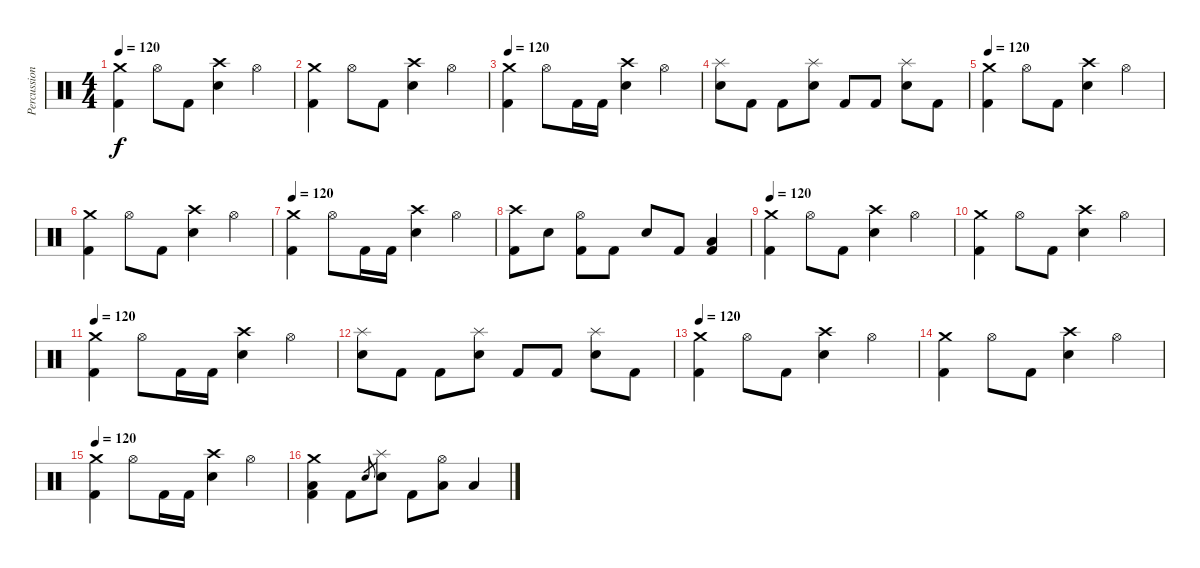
\track ("Percussions" "Percussion") {instrument percussion}
\staff {score}
\articulation defaults
\ts (4 4)
\tempo 120
\clef neutral
\ks c
("Crash medium (hit)" "Kick (hit) 2").4{dy f} "Hi-Hat (open)".8 "Kick (hit) 2".8 ("Crash high (hit)" "Electric Snare (hit)").4 "Hi-Hat (open)".4 |
("Crash medium (hit)" "Kick (hit) 2").4 "Hi-Hat (open)".8 "Kick (hit) 2".8 ("Crash high (hit)" "Electric Snare (hit)").4 "Hi-Hat (open)".4 |
\tempo 120
("Crash medium (hit)" "Kick (hit) 2").4 "Hi-Hat (open)".8 "Kick (hit) 2".16 "Kick (hit) 2".16 ("Crash high (hit)" "Electric Snare (hit)").4 "Hi-Hat (open)".4 |
("Splash (hit)" "Electric Snare (hit)").8 "Kick (hit) 2".8 "Kick (hit) 2".8 ("Splash (hit)" "Electric Snare (hit)").8 "Kick (hit) 2".8 "Kick (hit) 2".8 ("Splash (hit)" "Electric Snare (hit)").8 "Kick (hit) 2".8 |
\tempo 120
("Crash medium (hit)" "Kick (hit) 2").4 "Hi-Hat (open)".8 "Kick (hit) 2".8 ("Crash high (hit)" "Electric Snare (hit)").4 "Hi-Hat (open)".4 |
("Crash medium (hit)" "Kick (hit) 2").4 "Hi-Hat (open)".8 "Kick (hit) 2".8 ("Crash high (hit)" "Electric Snare (hit)").4 "Hi-Hat (open)".4 |
\tempo 120
("Crash medium (hit)" "Kick (hit) 2").4 "Hi-Hat (open)".8 "Kick (hit) 2".16 "Kick (hit) 2".16 ("Crash high (hit)" "Electric Snare (hit)").4 "Hi-Hat (open)".4 |
("Crash high (hit)" "Kick (hit) 2").8 "Electric Snare (hit)".8 ("Hi-Hat (open)" "Kick (hit) 2").8 "Kick (hit) 2".8 "Electric Snare (hit)".8 "Kick (hit) 2".8 ("Low Tom (hit)" "Kick (hit) 2").4 |
\tempo 120
("Crash medium (hit)" "Kick (hit) 2").4 "Hi-Hat (open)".8 "Kick (hit) 2".8 ("Crash high (hit)" "Electric Snare (hit)").4 "Hi-Hat (open)".4 |
("Crash medium (hit)" "Kick (hit) 2").4 "Hi-Hat (open)".8 "Kick (hit) 2".8 ("Crash high (hit)" "Electric Snare (hit)").4 "Hi-Hat (open)".4 |
\tempo 120
("Crash medium (hit)" "Kick (hit) 2").4 "Hi-Hat (open)".8 "Kick (hit) 2".16 "Kick (hit) 2".16 ("Crash high (hit)" "Electric Snare (hit)").4 "Hi-Hat (open)".4 |
("Splash (hit)" "Electric Snare (hit)").8 "Kick (hit) 2".8 "Kick (hit) 2".8 ("Splash (hit)" "Electric Snare (hit)").8 "Kick (hit) 2".8 "Kick (hit) 2".8 ("Splash (hit)" "Electric Snare (hit)").8 "Kick (hit) 2".8 |
\tempo 120
("Crash medium (hit)" "Kick (hit) 2").4 "Hi-Hat (open)".8 "Kick (hit) 2".8 ("Crash high (hit)" "Electric Snare (hit)").4 "Hi-Hat (open)".4 |
("Crash medium (hit)" "Kick (hit) 2").4 "Hi-Hat (open)".8 "Kick (hit) 2".8 ("Crash high (hit)" "Electric Snare (hit)").4 "Hi-Hat (open)".4 |
\tempo 120
("Crash medium (hit)" "Kick (hit) 2").4 "Hi-Hat (open)".8 "Kick (hit) 2".16 "Kick (hit) 2".16 ("Crash high (hit)" "Electric Snare (hit)").4 "Hi-Hat (open)".4 |
("Crash medium (hit)" "Low Tom (hit)" "Kick (hit) 2").4 "Kick (hit) 2".8 "Electric Snare (hit)".8{gr} ("Splash (hit)" "Electric Snare (hit)").8 "Kick (hit) 2".8 ("Hi-Hat (open)" "Low Tom (hit)").8 "Low Tom (hit)".4
